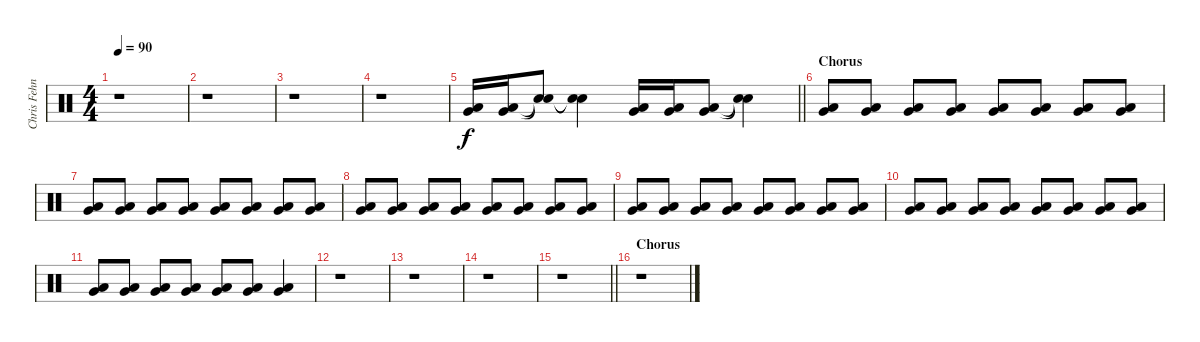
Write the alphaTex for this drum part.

\track ("Chris Fehn" "Chris Fehn") {instrument percussion}
\staff {score}
\articulation defaults
\ts (4 4)
\tempo 90
\clef neutral
\ks c
r.1{dy f} |
r.1 |
r.1 |
r.1 |
\barLineRight lightlight
("Very Low Tom (hit)" "Low Floor Tom (hit)").16 ("Very Low Tom (hit)" "Low Floor Tom (hit)").16 ("Snare (hit)"{t} "Snare (hit)"{t}).8 ("Snare (hit)"{t} "Snare (hit)"{t}).4 ("Very Low Tom (hit)" "Low Floor Tom (hit)").16 ("Very Low Tom (hit)" "Low Floor Tom (hit)").16 ("Very Low Tom (hit)" "Low Floor Tom (hit)").8 ("Snare (hit)"{t} "Snare (hit)"{t}).4 |
\section ("" "Chorus")
("Very Low Tom (hit)" "Low Floor Tom (hit)").8 ("Very Low Tom (hit)" "Low Floor Tom (hit)").8 ("Very Low Tom (hit)" "Low Floor Tom (hit)").8 ("Very Low Tom (hit)" "Low Floor Tom (hit)").8 ("Very Low Tom (hit)" "Low Floor Tom (hit)").8 ("Very Low Tom (hit)" "Low Floor Tom (hit)").8 ("Very Low Tom (hit)" "Low Floor Tom (hit)").8 ("Very Low Tom (hit)" "Low Floor Tom (hit)").8 |
("Very Low Tom (hit)" "Low Floor Tom (hit)").8 ("Very Low Tom (hit)" "Low Floor Tom (hit)").8 ("Very Low Tom (hit)" "Low Floor Tom (hit)").8 ("Very Low Tom (hit)" "Low Floor Tom (hit)").8 ("Very Low Tom (hit)" "Low Floor Tom (hit)").8 ("Very Low Tom (hit)" "Low Floor Tom (hit)").8 ("Very Low Tom (hit)" "Low Floor Tom (hit)").8 ("Very Low Tom (hit)" "Low Floor Tom (hit)").8 |
("Very Low Tom (hit)" "Low Floor Tom (hit)").8 ("Very Low Tom (hit)" "Low Floor Tom (hit)").8 ("Very Low Tom (hit)" "Low Floor Tom (hit)").8 ("Very Low Tom (hit)" "Low Floor Tom (hit)").8 ("Very Low Tom (hit)" "Low Floor Tom (hit)").8 ("Very Low Tom (hit)" "Low Floor Tom (hit)").8 ("Very Low Tom (hit)" "Low Floor Tom (hit)").8 ("Very Low Tom (hit)" "Low Floor Tom (hit)").8 |
("Very Low Tom (hit)" "Low Floor Tom (hit)").8 ("Very Low Tom (hit)" "Low Floor Tom (hit)").8 ("Very Low Tom (hit)" "Low Floor Tom (hit)").8 ("Very Low Tom (hit)" "Low Floor Tom (hit)").8 ("Very Low Tom (hit)" "Low Floor Tom (hit)").8 ("Very Low Tom (hit)" "Low Floor Tom (hit)").8 ("Very Low Tom (hit)" "Low Floor Tom (hit)").8 ("Very Low Tom (hit)" "Low Floor Tom (hit)").8 |
("Very Low Tom (hit)" "Low Floor Tom (hit)").8 ("Very Low Tom (hit)" "Low Floor Tom (hit)").8 ("Very Low Tom (hit)" "Low Floor Tom (hit)").8 ("Very Low Tom (hit)" "Low Floor Tom (hit)").8 ("Very Low Tom (hit)" "Low Floor Tom (hit)").8 ("Very Low Tom (hit)" "Low Floor Tom (hit)").8 ("Very Low Tom (hit)" "Low Floor Tom (hit)").8 ("Very Low Tom (hit)" "Low Floor Tom (hit)").8 |
("Very Low Tom (hit)" "Low Floor Tom (hit)").8 ("Very Low Tom (hit)" "Low Floor Tom (hit)").8 ("Very Low Tom (hit)" "Low Floor Tom (hit)").8 ("Very Low Tom (hit)" "Low Floor Tom (hit)").8 ("Very Low Tom (hit)" "Low Floor Tom (hit)").8 ("Very Low Tom (hit)" "Low Floor Tom (hit)").8 ("Very Low Tom (hit)" "Low Floor Tom (hit)").4 |
r.1 |
r.1 |
r.1 |
\barLineRight lightlight
r.1 |
\section ("" "Chorus")
r.1
